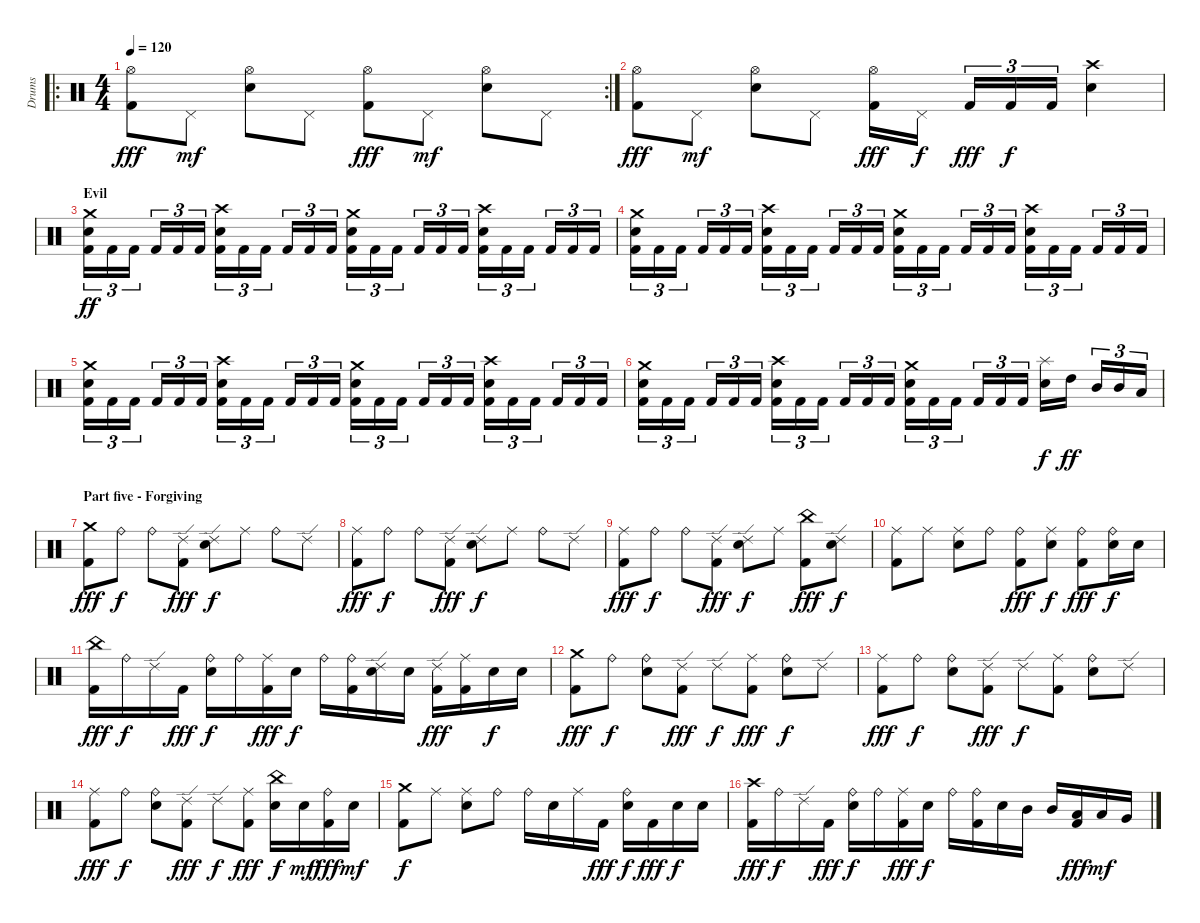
\track ("Drums" "Drums") {instrument percussion}
\staff {score}
\articulation defaults
\ro
\rc 2
\ts (4 4)
\tempo 120
\clef neutral
\ks c
("Hi-Hat (open)" "Kick (hit) 2").8{dy fff} "Pedal Hi-Hat (hit)".8{dy mf} ("Hi-Hat (open)" "Electric Snare (hit)").8 "Pedal Hi-Hat (hit)".8 ("Hi-Hat (open)" "Kick (hit) 2").8{dy fff} "Pedal Hi-Hat (hit)".8{dy mf} ("Hi-Hat (open)" "Electric Snare (hit)").8 "Pedal Hi-Hat (hit)".8 |
("Hi-Hat (open)" "Kick (hit) 2").8{dy fff} "Pedal Hi-Hat (hit)".8{dy mf} ("Hi-Hat (open)" "Electric Snare (hit)").8 "Pedal Hi-Hat (hit)".8 ("Hi-Hat (open)" "Kick (hit) 2").16{dy fff} "Pedal Hi-Hat (hit)".16{dy f} "Kick (hit) 2".16{tu (3 2) dy fff} "Kick (hit) 2".16{tu (3 2) dy f} "Kick (hit) 2".16{tu (3 2)} ("Crash high (hit)" "Electric Snare (hit)").4 |
\section ("" "Evil")
("Crash medium (hit)" "Electric Snare (hit)" "Kick (hit) 2").16{tu (3 2) dy ff} "Kick (hit) 2".16{tu (3 2)} "Kick (hit) 2".16{tu (3 2)} "Kick (hit) 2".16{tu (3 2)} "Kick (hit) 2".16{tu (3 2)} "Kick (hit) 2".16{tu (3 2)} ("Crash high (hit)" "Electric Snare (hit)" "Kick (hit) 2").16{tu (3 2)} "Kick (hit) 2".16{tu (3 2)} "Kick (hit) 2".16{tu (3 2)} "Kick (hit) 2".16{tu (3 2)} "Kick (hit) 2".16{tu (3 2)} "Kick (hit) 2".16{tu (3 2)} ("Crash medium (hit)" "Electric Snare (hit)" "Kick (hit) 2").16{tu (3 2)} "Kick (hit) 2".16{tu (3 2)} "Kick (hit) 2".16{tu (3 2)} "Kick (hit) 2".16{tu (3 2)} "Kick (hit) 2".16{tu (3 2)} "Kick (hit) 2".16{tu (3 2)} ("Crash high (hit)" "Electric Snare (hit)" "Kick (hit) 2").16{tu (3 2)} "Kick (hit) 2".16{tu (3 2)} "Kick (hit) 2".16{tu (3 2)} "Kick (hit) 2".16{tu (3 2)} "Kick (hit) 2".16{tu (3 2)} "Kick (hit) 2".16{tu (3 2)} |
("Crash medium (hit)" "Electric Snare (hit)" "Kick (hit) 2").16{tu (3 2)} "Kick (hit) 2".16{tu (3 2)} "Kick (hit) 2".16{tu (3 2)} "Kick (hit) 2".16{tu (3 2)} "Kick (hit) 2".16{tu (3 2)} "Kick (hit) 2".16{tu (3 2)} ("Crash high (hit)" "Electric Snare (hit)" "Kick (hit) 2").16{tu (3 2)} "Kick (hit) 2".16{tu (3 2)} "Kick (hit) 2".16{tu (3 2)} "Kick (hit) 2".16{tu (3 2)} "Kick (hit) 2".16{tu (3 2)} "Kick (hit) 2".16{tu (3 2)} ("Crash medium (hit)" "Electric Snare (hit)" "Kick (hit) 2").16{tu (3 2)} "Kick (hit) 2".16{tu (3 2)} "Kick (hit) 2".16{tu (3 2)} "Kick (hit) 2".16{tu (3 2)} "Kick (hit) 2".16{tu (3 2)} "Kick (hit) 2".16{tu (3 2)} ("Crash high (hit)" "Electric Snare (hit)" "Kick (hit) 2").16{tu (3 2)} "Kick (hit) 2".16{tu (3 2)} "Kick (hit) 2".16{tu (3 2)} "Kick (hit) 2".16{tu (3 2)} "Kick (hit) 2".16{tu (3 2)} "Kick (hit) 2".16{tu (3 2)} |
("Crash medium (hit)" "Electric Snare (hit)" "Kick (hit) 2").16{tu (3 2)} "Kick (hit) 2".16{tu (3 2)} "Kick (hit) 2".16{tu (3 2)} "Kick (hit) 2".16{tu (3 2)} "Kick (hit) 2".16{tu (3 2)} "Kick (hit) 2".16{tu (3 2)} ("Crash high (hit)" "Electric Snare (hit)" "Kick (hit) 2").16{tu (3 2)} "Kick (hit) 2".16{tu (3 2)} "Kick (hit) 2".16{tu (3 2)} "Kick (hit) 2".16{tu (3 2)} "Kick (hit) 2".16{tu (3 2)} "Kick (hit) 2".16{tu (3 2)} ("Crash medium (hit)" "Electric Snare (hit)" "Kick (hit) 2").16{tu (3 2)} "Kick (hit) 2".16{tu (3 2)} "Kick (hit) 2".16{tu (3 2)} "Kick (hit) 2".16{tu (3 2)} "Kick (hit) 2".16{tu (3 2)} "Kick (hit) 2".16{tu (3 2)} ("Crash high (hit)" "Electric Snare (hit)" "Kick (hit) 2").16{tu (3 2)} "Kick (hit) 2".16{tu (3 2)} "Kick (hit) 2".16{tu (3 2)} "Kick (hit) 2".16{tu (3 2)} "Kick (hit) 2".16{tu (3 2)} "Kick (hit) 2".16{tu (3 2)} |
("Crash medium (hit)" "Electric Snare (hit)" "Kick (hit) 2").16{tu (3 2)} "Kick (hit) 2".16{tu (3 2)} "Kick (hit) 2".16{tu (3 2)} "Kick (hit) 2".16{tu (3 2)} "Kick (hit) 2".16{tu (3 2)} "Kick (hit) 2".16{tu (3 2)} ("Crash high (hit)" "Electric Snare (hit)" "Kick (hit) 2").16{tu (3 2)} "Kick (hit) 2".16{tu (3 2)} "Kick (hit) 2".16{tu (3 2)} "Kick (hit) 2".16{tu (3 2)} "Kick (hit) 2".16{tu (3 2)} "Kick (hit) 2".16{tu (3 2)} ("Crash medium (hit)" "Electric Snare (hit)" "Kick (hit) 2").16{tu (3 2)} "Kick (hit) 2".16{tu (3 2)} "Kick (hit) 2".16{tu (3 2)} "Kick (hit) 2".16{tu (3 2)} "Kick (hit) 2".16{tu (3 2)} "Kick (hit) 2".16{tu (3 2)} ("Splash (hit)" "Electric Snare (hit)").16{dy f} "High Tom (hit)".16{dy ff} "Mid Tom (hit)".16{tu (3 2)} "Mid Tom (hit)".16{tu (3 2)} "Low Tom (hit)".16{tu (3 2)} |
\section ("" "Part five - Forgiving")
("Crash medium (hit)" "Kick (hit) 2").8{dy fff} "Ride (bell)".8{dy f} "Ride (bell)".8 ("Ride (edge) 2" "Kick (hit) 2").8{dy fff} ("Ride (edge) 2" "Electric Snare (hit)").8{dy f} "Ride (middle)".8 "Ride (bell)".8 "Ride (edge) 2".8 |
("Ride (middle)" "Kick (hit) 2").8{dy fff} "Ride (bell)".8{dy f} "Ride (bell)".8 ("Ride (edge) 2" "Kick (hit) 2").8{dy fff} ("Ride (edge) 2" "Electric Snare (hit)").8{dy f} "Ride (middle)".8 "Ride (bell)".8 "Ride (edge) 2".8 |
("Ride (middle)" "Kick (hit) 2").8{dy fff} "Ride (bell)".8{dy f} "Ride (bell)".8 ("Ride (edge) 2" "Kick (hit) 2").8{dy fff} ("Ride (edge) 2" "Electric Snare (hit)").8{dy f} "Ride (middle)".8 ("China (hit)" "Kick (hit) 2").8{dy fff} ("Ride (edge) 2" "Electric Snare (hit)").8{dy f} |
("Ride (middle)" "Kick (hit) 2").8 "Ride (middle)".8 ("Ride (middle)" "Electric Snare (hit)").8 "Ride (bell)".8 ("Ride (bell)" "Kick (hit) 2").8{dy fff} ("Ride (middle)" "Electric Snare (hit)").8{dy f} ("Ride (bell)" "Kick (hit) 2").8{dy fff} ("Ride (bell)" "Electric Snare (hit)").16{dy f} "Electric Snare (hit)".16 |
("China (hit)" "Kick (hit) 2").16{dy fff} "Ride (bell)".16{dy f} "Ride (edge) 2".16 "Kick (hit) 2".16{dy fff} ("Ride (bell)" "Electric Snare (hit)").16{dy f} "Ride (bell)".16 ("Ride (middle)" "Kick (hit) 2").16{dy fff} "Electric Snare (hit)".16{dy f} "Ride (bell)".16 ("Ride (bell)" "Kick (hit) 2").16 ("Ride (edge) 2" "Electric Snare (hit)").16 "Electric Snare (hit)".16 ("Ride (edge) 2" "Kick (hit) 2").16{dy fff} ("Ride (middle)" "Kick (hit) 2").16 "Electric Snare (hit)".16{dy f} "Electric Snare (hit)".16 |
("Crash medium (hit)" "Kick (hit) 2").8{dy fff} "Ride (bell)".8{dy f} ("Ride (bell)" "Electric Snare (hit)").8 ("Ride (edge) 2" "Kick (hit) 2").8{dy fff} "Ride (edge) 2".8{dy f} ("Ride (middle)" "Kick (hit) 2").8{dy fff} ("Ride (bell)" "Electric Snare (hit)").8{dy f} "Ride (edge) 2".8 |
("Ride (middle)" "Kick (hit) 2").8{dy fff} "Ride (bell)".8{dy f} ("Ride (bell)" "Electric Snare (hit)").8 ("Ride (edge) 2" "Kick (hit) 2").8{dy fff} "Ride (edge) 2".8{dy f} ("Ride (middle)" "Kick (hit) 2").8 ("Ride (bell)" "Electric Snare (hit)").8 "Ride (edge) 2".8 |
("Ride (middle)" "Kick (hit) 2").8{dy fff} "Ride (bell)".8{dy f} ("Ride (bell)" "Electric Snare (hit)").8 ("Ride (edge) 2" "Kick (hit) 2").8{dy fff} "Ride (edge) 2".8{dy f} ("Ride (middle)" "Kick (hit) 2").8{dy fff} ("China (hit)" "Electric Snare (hit)").16{dy f} "Electric Snare (hit)".16{dy mf} ("Ride (bell)" "Kick (hit) 2").16{dy fff} "Electric Snare (hit)".16{dy mf} |
("Crash medium (hit)" "Kick (hit) 2").8{dy f} "Ride (middle)".8 ("Ride (middle)" "Electric Snare (hit)").8 "Ride (bell)".8 "Ride (bell)".16 "Electric Snare (hit)".16 "Ride (middle)".16 "Kick (hit) 2".16{dy fff} ("Ride (bell)" "Electric Snare (hit)").16{dy f} "Kick (hit) 2".16{dy fff} "Electric Snare (hit)".16{dy f} "Electric Snare (hit)".16 |
("Crash high (hit)" "Kick (hit) 2").16{dy fff} "Ride (bell)".16{dy f} "Ride (edge) 2".16 "Kick (hit) 2".16{dy fff} ("Ride (bell)" "Electric Snare (hit)").16{dy f} "Ride (bell)".16 ("Ride (middle)" "Kick (hit) 2").16{dy fff} "Electric Snare (hit)".16{dy f} "Ride (bell)".16 ("Ride (bell)" "Kick (hit) 2").16 "Electric Snare (hit)".16 "Mid Tom (hit)".16 "Mid Tom (hit)".16 ("Low Tom (hit)" "Kick (hit) 2").16{dy fff} "Low Tom (hit)".16{dy mf} "Very Low Tom (hit)".16
